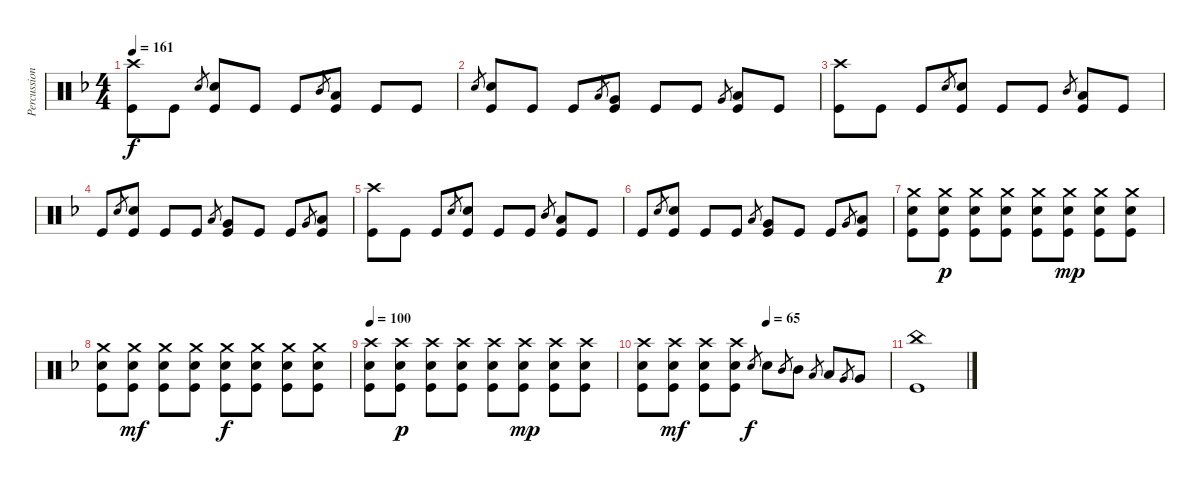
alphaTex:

\track ("Percussion" "Percussion") {instrument percussion}
\staff {score}
\articulation defaults
\ts (4 4)
\tempo 161
\clef neutral
\ks f
("Crash high (hit)" "Kick (hit)").8{dy f} "Kick (hit)".8 "Electric Snare (hit)".8{gr} ("Electric Snare (hit)" "Kick (hit)").8 "Kick (hit)".8 "Kick (hit)".8 "Mid Tom (hit)".8{gr} ("Low Tom (hit)" "Kick (hit)").8 "Kick (hit)".8 "Kick (hit)".8 |
"Electric Snare (hit)".8{gr} ("Electric Snare (hit)" "Kick (hit)").8 "Kick (hit)".8 "Kick (hit)".8 "Low Tom (hit)".8{gr} ("Very Low Tom (hit)" "Kick (hit)").8 "Kick (hit)".8 "Kick (hit)".8 "Very Low Tom (hit)".8{gr} ("Low Floor Tom (hit)" "Kick (hit)").8 "Kick (hit)".8 |
("Crash high (hit)" "Kick (hit)").8 "Kick (hit)".8 "Kick (hit)".8 "Electric Snare (hit)".8{gr} ("Electric Snare (hit)" "Kick (hit)").8 "Kick (hit)".8 "Kick (hit)".8 "Mid Tom (hit)".8{gr} ("Low Tom (hit)" "Kick (hit)").8 "Kick (hit)".8 |
"Kick (hit)".8 "Electric Snare (hit)".8{gr} ("Electric Snare (hit)" "Kick (hit)").8 "Kick (hit)".8 "Kick (hit)".8 "Low Tom (hit)".8{gr} ("Very Low Tom (hit)" "Kick (hit)").8 "Kick (hit)".8 "Kick (hit)".8 "Very Low Tom (hit)".8{gr} ("Low Floor Tom (hit)" "Kick (hit)").8 |
("Crash high (hit)" "Kick (hit)").8 "Kick (hit)".8 "Kick (hit)".8 "Electric Snare (hit)".8{gr} ("Electric Snare (hit)" "Kick (hit)").8 "Kick (hit)".8 "Kick (hit)".8 "Mid Tom (hit)".8{gr} ("Low Tom (hit)" "Kick (hit)").8 "Kick (hit)".8 |
"Kick (hit)".8 "Electric Snare (hit)".8{gr} ("Electric Snare (hit)" "Kick (hit)").8 "Kick (hit)".8 "Kick (hit)".8 "Low Tom (hit)".8{gr} ("Very Low Tom (hit)" "Kick (hit)").8 "Kick (hit)".8 "Kick (hit)".8 "Very Low Tom (hit)".8{gr} ("Low Floor Tom (hit)" "Kick (hit)").8 |
("Crash medium (hit)" "Electric Snare (hit)" "Kick (hit)").8 ("Crash medium (hit)" "Electric Snare (hit)" "Kick (hit)").8{dy p} ("Crash medium (hit)" "Electric Snare (hit)" "Kick (hit)").8 ("Crash medium (hit)" "Electric Snare (hit)" "Kick (hit)").8 ("Crash medium (hit)" "Electric Snare (hit)" "Kick (hit)").8 ("Crash medium (hit)" "Electric Snare (hit)" "Kick (hit)").8{dy mp} ("Crash medium (hit)" "Electric Snare (hit)" "Kick (hit)").8 ("Crash medium (hit)" "Electric Snare (hit)" "Kick (hit)").8 |
("Crash medium (hit)" "Electric Snare (hit)" "Kick (hit)").8 ("Crash medium (hit)" "Electric Snare (hit)" "Kick (hit)").8{dy mf} ("Crash medium (hit)" "Electric Snare (hit)" "Kick (hit)").8 ("Crash medium (hit)" "Electric Snare (hit)" "Kick (hit)").8 ("Crash medium (hit)" "Electric Snare (hit)" "Kick (hit)").8{dy f} ("Crash medium (hit)" "Electric Snare (hit)" "Kick (hit)").8 ("Crash medium (hit)" "Electric Snare (hit)" "Kick (hit)").8 ("Crash medium (hit)" "Electric Snare (hit)" "Kick (hit)").8 |
\tempo 100
("Crash high (hit)" "Electric Snare (hit)" "Kick (hit)").8 ("Crash high (hit)" "Electric Snare (hit)" "Kick (hit)").8{dy p} ("Crash high (hit)" "Electric Snare (hit)" "Kick (hit)").8 ("Crash high (hit)" "Electric Snare (hit)" "Kick (hit)").8 ("Crash high (hit)" "Electric Snare (hit)" "Kick (hit)").8 ("Crash high (hit)" "Electric Snare (hit)" "Kick (hit)").8{dy mp} ("Crash high (hit)" "Electric Snare (hit)" "Kick (hit)").8 ("Crash high (hit)" "Electric Snare (hit)" "Kick (hit)").8 |
\tempo (65 0.5)
("Crash high (hit)" "Electric Snare (hit)" "Kick (hit)").8 ("Crash high (hit)" "Electric Snare (hit)" "Kick (hit)").8{dy mf} ("Crash high (hit)" "Electric Snare (hit)" "Kick (hit)").8 ("Crash high (hit)" "Electric Snare (hit)" "Kick (hit)").8 "Electric Snare (hit)".8{gr dy f} "Electric Snare (hit)".8 "Mid Tom (hit)".8{gr} "Mid Tom (hit)".8 "Low Tom (hit)".8{gr} "Low Tom (hit)".8 "Very Low Tom (hit)".8{gr} "Very Low Tom (hit)".8 |
("China (hit)" "Kick (hit)").1
